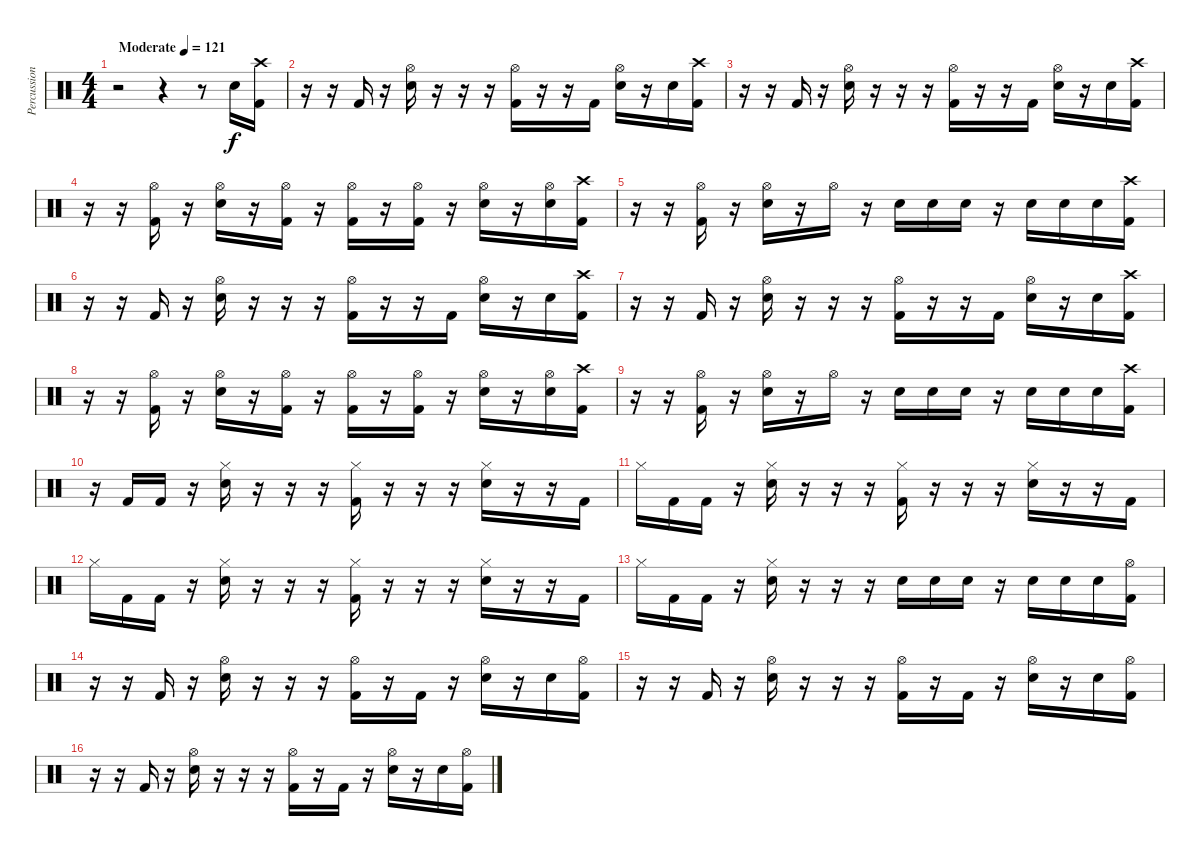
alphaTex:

\track ("Percussion" "Percussion") {instrument percussion}
\staff {score}
\articulation defaults
\ts (4 4)
\tempo (121 "Moderate")
\clef neutral
\ks c
r.2{dy f} r.4 r.8 "Electric Snare (hit)".16 ("Crash high (hit)" "Kick (hit) 2").16 |
r.16 r.16 "Kick (hit) 2".16 r.16 ("Hi-Hat (open)" "Electric Snare (hit)").16 r.16 r.16 r.16 ("Hi-Hat (open)" "Kick (hit) 2").16 r.16 r.16 "Kick (hit) 2".16 ("Hi-Hat (open)" "Electric Snare (hit)").16 r.16 "Electric Snare (hit)".16 ("Crash high (hit)" "Kick (hit) 2").16 |
r.16 r.16 "Kick (hit) 2".16 r.16 ("Hi-Hat (open)" "Electric Snare (hit)").16 r.16 r.16 r.16 ("Hi-Hat (open)" "Kick (hit) 2").16 r.16 r.16 "Kick (hit) 2".16 ("Hi-Hat (open)" "Electric Snare (hit)").16 r.16 "Electric Snare (hit)".16 ("Crash high (hit)" "Kick (hit) 2").16 |
r.16 r.16 ("Hi-Hat (open)" "Kick (hit) 2").16 r.16 ("Hi-Hat (open)" "Electric Snare (hit)").16 r.16 ("Hi-Hat (open)" "Kick (hit) 2").16 r.16 ("Hi-Hat (open)" "Kick (hit) 2").16 r.16 ("Hi-Hat (open)" "Kick (hit) 2").16 r.16 ("Hi-Hat (open)" "Electric Snare (hit)").16 r.16 ("Hi-Hat (open)" "Electric Snare (hit)").16 ("Crash high (hit)" "Kick (hit) 2").16 |
r.16 r.16 ("Hi-Hat (open)" "Kick (hit) 2").16 r.16 ("Hi-Hat (open)" "Electric Snare (hit)").16 r.16 "Hi-Hat (open)".16 r.16 "Electric Snare (hit)".16 "Electric Snare (hit)".16 "Electric Snare (hit)".16 r.16 "Electric Snare (hit)".16 "Electric Snare (hit)".16 "Electric Snare (hit)".16 ("Crash high (hit)" "Kick (hit) 2").16 |
r.16 r.16 "Kick (hit) 2".16 r.16 ("Hi-Hat (open)" "Electric Snare (hit)").16 r.16 r.16 r.16 ("Hi-Hat (open)" "Kick (hit) 2").16 r.16 r.16 "Kick (hit) 2".16 ("Hi-Hat (open)" "Electric Snare (hit)").16 r.16 "Electric Snare (hit)".16 ("Crash high (hit)" "Kick (hit) 2").16 |
r.16 r.16 "Kick (hit) 2".16 r.16 ("Hi-Hat (open)" "Electric Snare (hit)").16 r.16 r.16 r.16 ("Hi-Hat (open)" "Kick (hit) 2").16 r.16 r.16 "Kick (hit) 2".16 ("Hi-Hat (open)" "Electric Snare (hit)").16 r.16 "Electric Snare (hit)".16 ("Crash high (hit)" "Kick (hit) 2").16 |
r.16 r.16 ("Hi-Hat (open)" "Kick (hit) 2").16 r.16 ("Hi-Hat (open)" "Electric Snare (hit)").16 r.16 ("Hi-Hat (open)" "Kick (hit) 2").16 r.16 ("Hi-Hat (open)" "Kick (hit) 2").16 r.16 ("Hi-Hat (open)" "Kick (hit) 2").16 r.16 ("Hi-Hat (open)" "Electric Snare (hit)").16 r.16 ("Hi-Hat (open)" "Electric Snare (hit)").16 ("Crash high (hit)" "Kick (hit) 2").16 |
r.16 r.16 ("Hi-Hat (open)" "Kick (hit) 2").16 r.16 ("Hi-Hat (open)" "Electric Snare (hit)").16 r.16 "Hi-Hat (open)".16 r.16 "Electric Snare (hit)".16 "Electric Snare (hit)".16 "Electric Snare (hit)".16 r.16 "Electric Snare (hit)".16 "Electric Snare (hit)".16 "Electric Snare (hit)".16 ("Crash high (hit)" "Kick (hit) 2").16 |
r.16 "Kick (hit) 2".16 "Kick (hit) 2".16 r.16 ("Hi-Hat (closed)" "Electric Snare (hit)").16 r.16 r.16 r.16 ("Hi-Hat (closed)" "Kick (hit) 2").16 r.16 r.16 r.16 ("Hi-Hat (closed)" "Electric Snare (hit)").16 r.16 r.16 "Kick (hit) 2".16 |
"Hi-Hat (closed)".16 "Kick (hit) 2".16 "Kick (hit) 2".16 r.16 ("Hi-Hat (closed)" "Electric Snare (hit)").16 r.16 r.16 r.16 ("Hi-Hat (closed)" "Kick (hit) 2").16 r.16 r.16 r.16 ("Hi-Hat (closed)" "Electric Snare (hit)").16 r.16 r.16 "Kick (hit) 2".16 |
"Hi-Hat (closed)".16 "Kick (hit) 2".16 "Kick (hit) 2".16 r.16 ("Hi-Hat (closed)" "Electric Snare (hit)").16 r.16 r.16 r.16 ("Hi-Hat (closed)" "Kick (hit) 2").16 r.16 r.16 r.16 ("Hi-Hat (closed)" "Electric Snare (hit)").16 r.16 r.16 "Kick (hit) 2".16 |
"Hi-Hat (closed)".16 "Kick (hit) 2".16 "Kick (hit) 2".16 r.16 ("Hi-Hat (closed)" "Electric Snare (hit)").16 r.16 r.16 r.16 "Electric Snare (hit)".16 "Electric Snare (hit)".16 "Electric Snare (hit)".16 r.16 "Electric Snare (hit)".16 "Electric Snare (hit)".16 "Electric Snare (hit)".16 ("Hi-Hat (open)" "Kick (hit) 2").16 |
r.16 r.16 "Kick (hit) 2".16 r.16 ("Hi-Hat (open)" "Electric Snare (hit)").16 r.16 r.16 r.16 ("Hi-Hat (open)" "Kick (hit) 2").16 r.16 "Kick (hit) 2".16 r.16 ("Hi-Hat (open)" "Electric Snare (hit)").16 r.16 "Electric Snare (hit)".16 ("Hi-Hat (open)" "Kick (hit) 2").16 |
r.16 r.16 "Kick (hit) 2".16 r.16 ("Hi-Hat (open)" "Electric Snare (hit)").16 r.16 r.16 r.16 ("Hi-Hat (open)" "Kick (hit) 2").16 r.16 "Kick (hit) 2".16 r.16 ("Hi-Hat (open)" "Electric Snare (hit)").16 r.16 "Electric Snare (hit)".16 ("Hi-Hat (open)" "Kick (hit) 2").16 |
r.16 r.16 "Kick (hit) 2".16 r.16 ("Hi-Hat (open)" "Electric Snare (hit)").16 r.16 r.16 r.16 ("Hi-Hat (open)" "Kick (hit) 2").16 r.16 "Kick (hit) 2".16 r.16 ("Hi-Hat (open)" "Electric Snare (hit)").16 r.16 "Electric Snare (hit)".16 ("Hi-Hat (open)" "Kick (hit) 2").16
